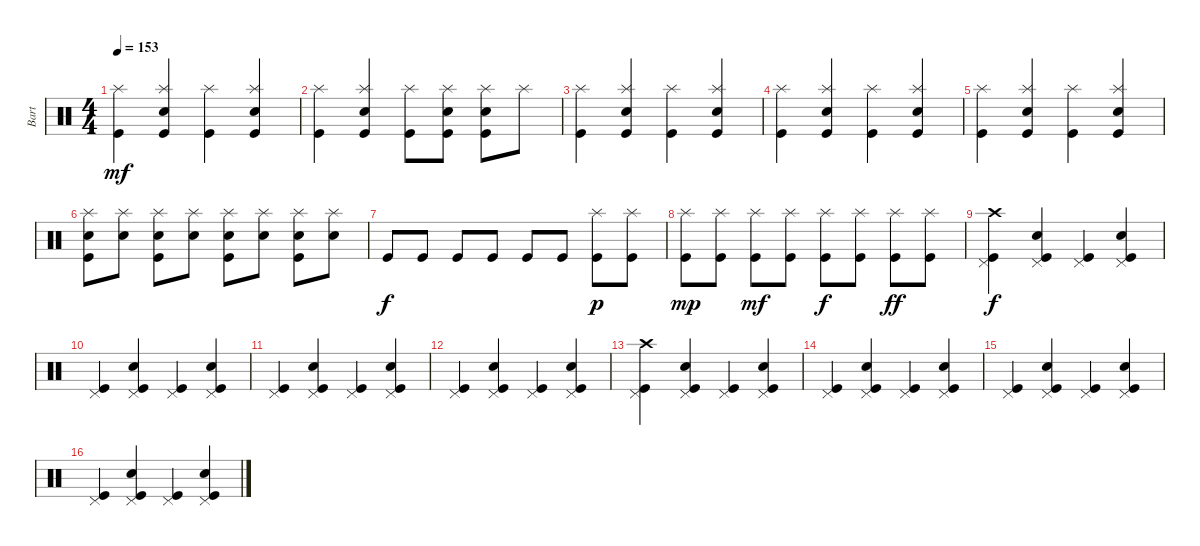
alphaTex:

\track ("Bart" "Bart") {instrument percussion}
\staff {score}
\articulation defaults
\ts (4 4)
\tempo 153
\clef neutral
\ks c
("Kick (hit)" "Splash (hit)").4{dy mf} ("Kick (hit)" "Electric Snare (hit)" "Splash (hit)").4 ("Kick (hit)" "Splash (hit)").4 ("Kick (hit)" "Electric Snare (hit)" "Splash (hit)").4 |
("Kick (hit)" "Splash (hit)").4 ("Kick (hit)" "Electric Snare (hit)" "Splash (hit)").4 ("Kick (hit)" "Splash (hit)").8 ("Kick (hit)" "Electric Snare (hit)" "Splash (hit)").8 ("Kick (hit)" "Electric Snare (hit)" "Splash (hit)").8 "Splash (hit)".8 |
("Kick (hit)" "Splash (hit)").4 ("Kick (hit)" "Electric Snare (hit)" "Splash (hit)").4 ("Kick (hit)" "Splash (hit)").4 ("Kick (hit)" "Electric Snare (hit)" "Splash (hit)").4 |
("Kick (hit)" "Splash (hit)").4 ("Kick (hit)" "Electric Snare (hit)" "Splash (hit)").4 ("Kick (hit)" "Splash (hit)").4 ("Kick (hit)" "Electric Snare (hit)" "Splash (hit)").4 |
("Kick (hit)" "Splash (hit)").4 ("Kick (hit)" "Electric Snare (hit)" "Splash (hit)").4 ("Kick (hit)" "Splash (hit)").4 ("Kick (hit)" "Electric Snare (hit)" "Splash (hit)").4 |
("Kick (hit)" "Electric Snare (hit)" "Splash (hit)").8 ("Electric Snare (hit)" "Splash (hit)").8 ("Kick (hit)" "Electric Snare (hit)" "Splash (hit)").8 ("Electric Snare (hit)" "Splash (hit)").8 ("Kick (hit)" "Electric Snare (hit)" "Splash (hit)").8 ("Electric Snare (hit)" "Splash (hit)").8 ("Kick (hit)" "Electric Snare (hit)" "Splash (hit)").8 ("Electric Snare (hit)" "Splash (hit)").8 |
"Kick (hit)".8{dy f} "Kick (hit)".8 "Kick (hit)".8 "Kick (hit)".8 "Kick (hit)".8 "Kick (hit)".8 ("Kick (hit)" "Splash (hit)").8{dy p} ("Kick (hit)" "Splash (hit)").8 |
("Kick (hit)" "Splash (hit)").8{dy mp} ("Kick (hit)" "Splash (hit)").8 ("Kick (hit)" "Splash (hit)").8{dy mf} ("Kick (hit)" "Splash (hit)").8 ("Kick (hit)" "Splash (hit)").8{dy f} ("Kick (hit)" "Splash (hit)").8 ("Kick (hit)" "Splash (hit)").8{dy ff} ("Kick (hit)" "Splash (hit)").8 |
("Kick (hit)" "Pedal Hi-Hat (hit)" "Crash high (hit)").4{dy f} ("Kick (hit)" "Electric Snare (hit)" "Pedal Hi-Hat (hit)").4 ("Kick (hit)" "Pedal Hi-Hat (hit)").4 ("Kick (hit)" "Electric Snare (hit)" "Pedal Hi-Hat (hit)").4 |
("Kick (hit)" "Pedal Hi-Hat (hit)").4 ("Kick (hit)" "Electric Snare (hit)" "Pedal Hi-Hat (hit)").4 ("Kick (hit)" "Pedal Hi-Hat (hit)").4 ("Kick (hit)" "Electric Snare (hit)" "Pedal Hi-Hat (hit)").4 |
("Kick (hit)" "Pedal Hi-Hat (hit)").4 ("Kick (hit)" "Electric Snare (hit)" "Pedal Hi-Hat (hit)").4 ("Kick (hit)" "Pedal Hi-Hat (hit)").4 ("Kick (hit)" "Electric Snare (hit)" "Pedal Hi-Hat (hit)").4 |
("Kick (hit)" "Pedal Hi-Hat (hit)").4 ("Kick (hit)" "Electric Snare (hit)" "Pedal Hi-Hat (hit)").4 ("Kick (hit)" "Pedal Hi-Hat (hit)").4 ("Kick (hit)" "Electric Snare (hit)" "Pedal Hi-Hat (hit)").4 |
("Kick (hit)" "Pedal Hi-Hat (hit)" "Crash high (hit)").4 ("Kick (hit)" "Electric Snare (hit)" "Pedal Hi-Hat (hit)").4 ("Kick (hit)" "Pedal Hi-Hat (hit)").4 ("Kick (hit)" "Electric Snare (hit)" "Pedal Hi-Hat (hit)").4 |
("Kick (hit)" "Pedal Hi-Hat (hit)").4 ("Kick (hit)" "Electric Snare (hit)" "Pedal Hi-Hat (hit)").4 ("Kick (hit)" "Pedal Hi-Hat (hit)").4 ("Kick (hit)" "Electric Snare (hit)" "Pedal Hi-Hat (hit)").4 |
("Kick (hit)" "Pedal Hi-Hat (hit)").4 ("Kick (hit)" "Electric Snare (hit)" "Pedal Hi-Hat (hit)").4 ("Kick (hit)" "Pedal Hi-Hat (hit)").4 ("Kick (hit)" "Electric Snare (hit)" "Pedal Hi-Hat (hit)").4 |
("Kick (hit)" "Pedal Hi-Hat (hit)").4 ("Kick (hit)" "Electric Snare (hit)" "Pedal Hi-Hat (hit)").4 ("Kick (hit)" "Pedal Hi-Hat (hit)").4 ("Kick (hit)" "Electric Snare (hit)" "Pedal Hi-Hat (hit)").4
